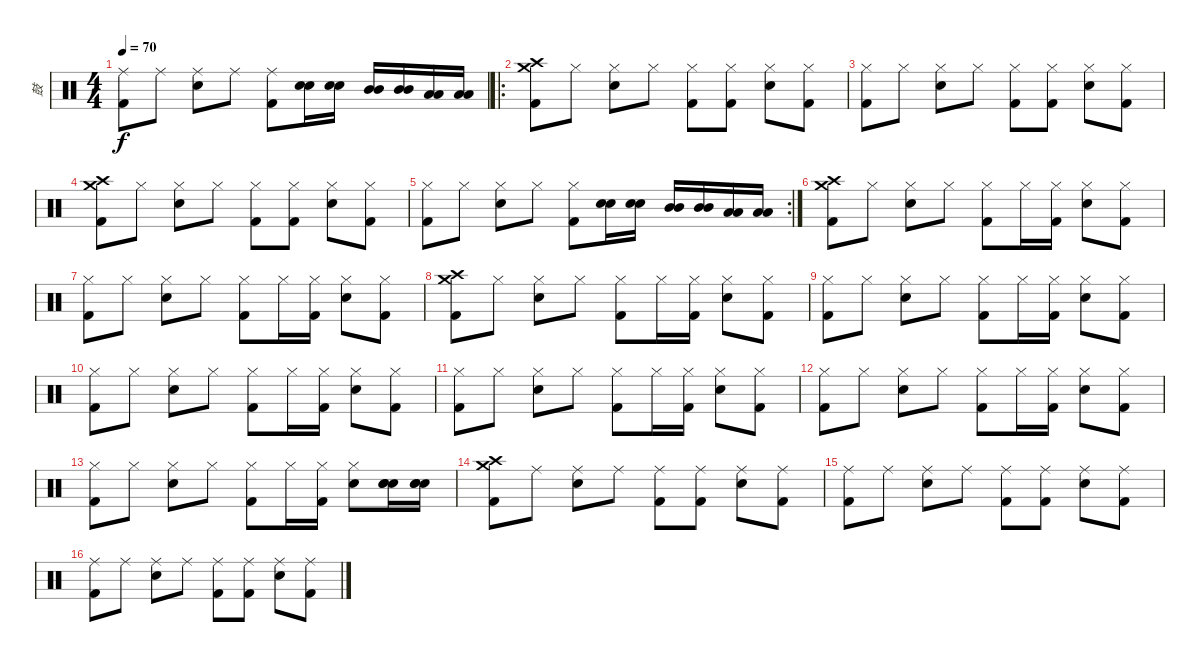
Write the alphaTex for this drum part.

\track ("鼓" "鼓") {instrument percussion}
\staff {score}
\articulation defaults
\ts (4 4)
\tempo 70
\clef neutral
\ks c
("Kick (hit) 2" "Ride (middle)").8{dy f} "Ride (middle)".8 ("Electric Snare (hit)" "Ride (middle)").8 "Ride (middle)".8 ("Kick (hit) 2" "Ride (middle)").8 ("Electric Snare (hit)" "Snare (hit) 2").16 ("Electric Snare (hit)" "Snare (hit) 2").16 ("Mid Tom (hit)" "Mid Tom (hit)").16 ("Mid Tom (hit)" "Mid Tom (hit)").16 ("Low Tom (hit)" "Low Tom (hit)").16 ("Low Tom (hit)" "Low Tom (hit)").16 |
\ro
("Kick (hit) 2" "Crash high (hit)" "Crash medium (hit)").8 "Hi-Hat (closed)".8 ("Electric Snare (hit)" "Hi-Hat (closed)").8 "Hi-Hat (closed)".8 ("Kick (hit) 2" "Hi-Hat (closed)").8 ("Kick (hit) 2" "Hi-Hat (closed)").8 ("Electric Snare (hit)" "Hi-Hat (closed)").8 ("Kick (hit) 2" "Hi-Hat (closed)").8 |
("Kick (hit) 2" "Hi-Hat (closed)").8 "Hi-Hat (closed)".8 ("Electric Snare (hit)" "Hi-Hat (closed)").8 "Hi-Hat (closed)".8 ("Kick (hit) 2" "Hi-Hat (closed)").8 ("Kick (hit) 2" "Hi-Hat (closed)").8 ("Electric Snare (hit)" "Hi-Hat (closed)").8 ("Kick (hit) 2" "Hi-Hat (closed)").8 |
("Kick (hit) 2" "Crash high (hit)" "Crash medium (hit)").8 "Hi-Hat (closed)".8 ("Electric Snare (hit)" "Hi-Hat (closed)").8 "Hi-Hat (closed)".8 ("Kick (hit) 2" "Hi-Hat (closed)").8 ("Kick (hit) 2" "Hi-Hat (closed)").8 ("Electric Snare (hit)" "Hi-Hat (closed)").8 ("Kick (hit) 2" "Hi-Hat (closed)").8 |
\rc 2
("Kick (hit) 2" "Hi-Hat (closed)").8 "Hi-Hat (closed)".8 ("Electric Snare (hit)" "Hi-Hat (closed)").8 "Hi-Hat (closed)".8 ("Kick (hit) 2" "Hi-Hat (closed)").8 ("Electric Snare (hit)" "Snare (hit) 2").16 ("Electric Snare (hit)" "Snare (hit) 2").16 ("Mid Tom (hit)" "Mid Tom (hit)").16 ("Mid Tom (hit)" "Mid Tom (hit)").16 ("Low Tom (hit)" "Low Tom (hit)").16 ("Low Tom (hit)" "Low Tom (hit)").16 |
("Kick (hit) 2" "Crash high (hit)" "Crash medium (hit)").8 "Hi-Hat (closed)".8 ("Electric Snare (hit)" "Hi-Hat (closed)").8 "Hi-Hat (closed)".8 ("Kick (hit) 2" "Hi-Hat (closed)").8 "Hi-Hat (closed)".16 ("Kick (hit) 2" "Hi-Hat (closed)").16 ("Electric Snare (hit)" "Hi-Hat (closed)").8 ("Kick (hit) 2" "Hi-Hat (closed)").8 |
("Kick (hit) 2" "Hi-Hat (closed)").8 "Hi-Hat (closed)".8 ("Electric Snare (hit)" "Hi-Hat (closed)").8 "Hi-Hat (closed)".8 ("Kick (hit) 2" "Hi-Hat (closed)").8 "Hi-Hat (closed)".16 ("Kick (hit) 2" "Hi-Hat (closed)").16 ("Electric Snare (hit)" "Hi-Hat (closed)").8 ("Kick (hit) 2" "Hi-Hat (closed)").8 |
("Kick (hit) 2" "Crash high (hit)" "Crash medium (hit)").8 "Hi-Hat (closed)".8 ("Electric Snare (hit)" "Hi-Hat (closed)").8 "Hi-Hat (closed)".8 ("Kick (hit) 2" "Hi-Hat (closed)").8 "Hi-Hat (closed)".16 ("Kick (hit) 2" "Hi-Hat (closed)").16 ("Electric Snare (hit)" "Hi-Hat (closed)").8 ("Kick (hit) 2" "Hi-Hat (closed)").8 |
("Kick (hit) 2" "Hi-Hat (closed)").8 "Hi-Hat (closed)".8 ("Electric Snare (hit)" "Hi-Hat (closed)").8 "Hi-Hat (closed)".8 ("Kick (hit) 2" "Hi-Hat (closed)").8 "Hi-Hat (closed)".16 ("Kick (hit) 2" "Hi-Hat (closed)").16 ("Electric Snare (hit)" "Hi-Hat (closed)").8 ("Kick (hit) 2" "Hi-Hat (closed)").8 |
("Kick (hit) 2" "Hi-Hat (closed)").8 "Hi-Hat (closed)".8 ("Electric Snare (hit)" "Hi-Hat (closed)").8 "Hi-Hat (closed)".8 ("Kick (hit) 2" "Hi-Hat (closed)").8 "Hi-Hat (closed)".16 ("Kick (hit) 2" "Hi-Hat (closed)").16 ("Electric Snare (hit)" "Hi-Hat (closed)").8 ("Kick (hit) 2" "Hi-Hat (closed)").8 |
("Kick (hit) 2" "Hi-Hat (closed)").8 "Hi-Hat (closed)".8 ("Electric Snare (hit)" "Hi-Hat (closed)").8 "Hi-Hat (closed)".8 ("Kick (hit) 2" "Hi-Hat (closed)").8 "Hi-Hat (closed)".16 ("Kick (hit) 2" "Hi-Hat (closed)").16 ("Electric Snare (hit)" "Hi-Hat (closed)").8 ("Kick (hit) 2" "Hi-Hat (closed)").8 |
("Kick (hit) 2" "Hi-Hat (closed)").8 "Hi-Hat (closed)".8 ("Electric Snare (hit)" "Hi-Hat (closed)").8 "Hi-Hat (closed)".8 ("Kick (hit) 2" "Hi-Hat (closed)").8 "Hi-Hat (closed)".16 ("Kick (hit) 2" "Hi-Hat (closed)").16 ("Electric Snare (hit)" "Hi-Hat (closed)").8 ("Kick (hit) 2" "Hi-Hat (closed)").8 |
("Kick (hit) 2" "Hi-Hat (closed)").8 "Hi-Hat (closed)".8 ("Electric Snare (hit)" "Hi-Hat (closed)").8 "Hi-Hat (closed)".8 ("Kick (hit) 2" "Hi-Hat (closed)").8 "Hi-Hat (closed)".16 ("Kick (hit) 2" "Hi-Hat (closed)").16 ("Electric Snare (hit)" "Hi-Hat (closed)").8 ("Electric Snare (hit)" "Electric Snare (hit)" "Electric Snare (hit)").16 ("Electric Snare (hit)" "Electric Snare (hit)" "Electric Snare (hit)").16 |
("Kick (hit) 2" "Crash high (hit)" "Crash medium (hit)").8 "Ride (middle)".8 ("Electric Snare (hit)" "Ride (middle)").8 "Ride (middle)".8 ("Kick (hit) 2" "Ride (middle)").8 ("Kick (hit) 2" "Ride (middle)").8 ("Electric Snare (hit)" "Ride (middle)").8 ("Kick (hit) 2" "Ride (middle)").8 |
("Kick (hit) 2" "Ride (middle)").8 "Ride (middle)".8 ("Electric Snare (hit)" "Ride (middle)").8 "Ride (middle)".8 ("Kick (hit) 2" "Ride (middle)").8 ("Kick (hit) 2" "Ride (middle)").8 ("Electric Snare (hit)" "Ride (middle)").8 ("Kick (hit) 2" "Ride (middle)").8 |
("Kick (hit) 2" "Ride (middle)").8 "Ride (middle)".8 ("Electric Snare (hit)" "Ride (middle)").8 "Ride (middle)".8 ("Kick (hit) 2" "Ride (middle)").8 ("Kick (hit) 2" "Ride (middle)").8 ("Electric Snare (hit)" "Ride (middle)").8 ("Kick (hit) 2" "Ride (middle)").8
